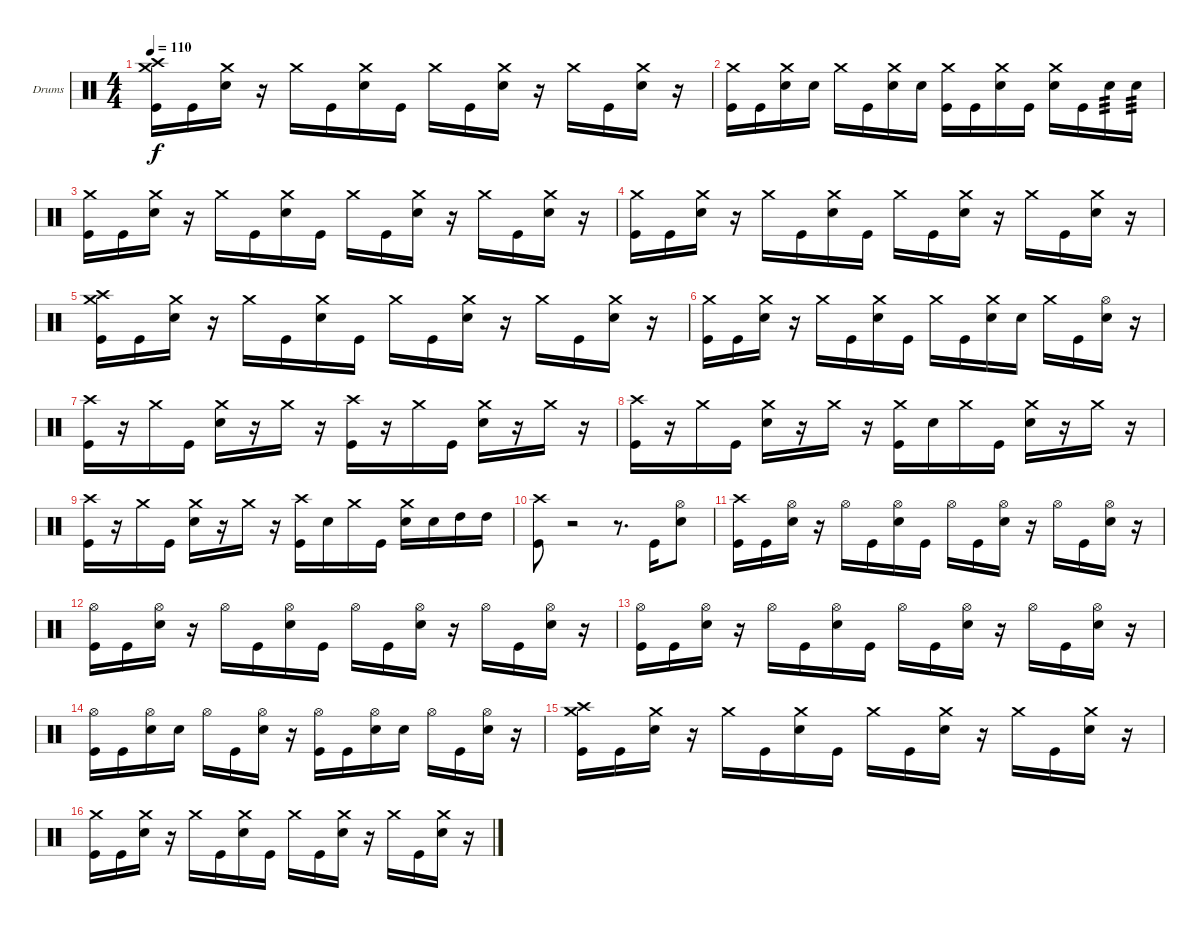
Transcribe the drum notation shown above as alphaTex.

\bracketExtendMode groupsimilarinstruments
\firstSystemTrackNameOrientation horizontal
\otherSystemsTrackNameOrientation horizontal
\track ("Drumkit" "Drums") {instrument percussion}
\staff {score}
\articulation defaults
\ts (4 4)
\tempo 110
\clef neutral
\ks c
("Crash high (hit)" "Crash medium (hit)" "Kick (hit)").16{dy f} "Kick (hit)".16 ("Crash medium (hit)" "Snare (hit) 2").16 r.16 "Crash medium (hit)".16 "Kick (hit)".16 ("Crash medium (hit)" "Snare (hit) 2").16 "Kick (hit)".16 "Crash medium (hit)".16 "Kick (hit)".16 ("Crash medium (hit)" "Snare (hit) 2").16 r.16 "Crash medium (hit)".16 "Kick (hit)".16 ("Crash medium (hit)" "Snare (hit) 2").16 r.16 |
("Crash medium (hit)" "Kick (hit)").16 "Kick (hit)".16 ("Crash medium (hit)" "Snare (hit) 2").16 "Snare (hit) 2".16 "Crash medium (hit)".16 "Kick (hit)".16 ("Crash medium (hit)" "Snare (hit) 2").16 "Snare (hit) 2".16 ("Crash medium (hit)" "Kick (hit)").16 "Kick (hit)".16 ("Crash medium (hit)" "Snare (hit) 2").16 "Kick (hit)".16 ("Crash medium (hit)" "Snare (hit) 2").16 "Kick (hit)".16 "Snare (hit) 2".16{tp 3} "Snare (hit) 2".16{tp 3} |
("Crash medium (hit)" "Kick (hit)").16 "Kick (hit)".16 ("Crash medium (hit)" "Snare (hit) 2").16 r.16 "Crash medium (hit)".16 "Kick (hit)".16 ("Crash medium (hit)" "Snare (hit) 2").16 "Kick (hit)".16 "Crash medium (hit)".16 "Kick (hit)".16 ("Crash medium (hit)" "Snare (hit) 2").16 r.16 "Crash medium (hit)".16 "Kick (hit)".16 ("Crash medium (hit)" "Snare (hit) 2").16 r.16 |
("Crash medium (hit)" "Kick (hit)").16 "Kick (hit)".16 ("Crash medium (hit)" "Snare (hit) 2").16 r.16 "Crash medium (hit)".16 "Kick (hit)".16 ("Crash medium (hit)" "Snare (hit) 2").16 "Kick (hit)".16 "Crash medium (hit)".16 "Kick (hit)".16 ("Crash medium (hit)" "Snare (hit) 2").16 r.16 "Crash medium (hit)".16 "Kick (hit)".16 ("Crash medium (hit)" "Snare (hit) 2").16 r.16 |
("Crash high (hit)" "Crash medium (hit)" "Kick (hit)").16 "Kick (hit)".16 ("Crash medium (hit)" "Snare (hit) 2").16 r.16 "Crash medium (hit)".16 "Kick (hit)".16 ("Crash medium (hit)" "Snare (hit) 2").16 "Kick (hit)".16 "Crash medium (hit)".16 "Kick (hit)".16 ("Crash medium (hit)" "Snare (hit) 2").16 r.16 "Crash medium (hit)".16 "Kick (hit)".16 ("Crash medium (hit)" "Snare (hit) 2").16 r.16 |
("Crash medium (hit)" "Kick (hit)").16 "Kick (hit)".16 ("Crash medium (hit)" "Snare (hit) 2").16 r.16 "Crash medium (hit)".16 "Kick (hit)".16 ("Crash medium (hit)" "Snare (hit) 2").16 "Kick (hit)".16 "Crash medium (hit)".16 "Kick (hit)".16 ("Crash medium (hit)" "Snare (hit) 2").16 "Snare (hit) 2".16 "Crash medium (hit)".16 "Kick (hit)".16 ("Hi-Hat (open)" "Snare (hit) 2").16 r.16 |
("Crash high (hit)" "Kick (hit)").16 r.16 "Crash medium (hit)".16 "Kick (hit)".16 ("Crash medium (hit)" "Snare (hit) 2").16 r.16 "Crash medium (hit)".16 r.16 ("Crash high (hit)" "Kick (hit)").16 r.16 "Crash medium (hit)".16 "Kick (hit)".16 ("Crash medium (hit)" "Snare (hit) 2").16 r.16 "Crash medium (hit)".16 r.16 |
("Crash high (hit)" "Kick (hit)").16 r.16 "Crash medium (hit)".16 "Kick (hit)".16 ("Crash medium (hit)" "Snare (hit) 2").16 r.16 "Crash medium (hit)".16 r.16 ("Crash medium (hit)" "Kick (hit)").16 "Snare (hit) 2".16 "Crash medium (hit)".16 "Kick (hit)".16 ("Crash medium (hit)" "Snare (hit) 2").16 r.16 "Crash medium (hit)".16 r.16 |
("Crash high (hit)" "Kick (hit)").16 r.16 "Crash medium (hit)".16 "Kick (hit)".16 ("Crash medium (hit)" "Snare (hit) 2").16 r.16 "Crash medium (hit)".16 r.16 ("Crash high (hit)" "Kick (hit)").16 "Snare (hit) 2".16 "Crash medium (hit)".16 "Kick (hit)".16 ("Crash medium (hit)" "Snare (hit) 2").16 "Snare (hit) 2".16 "High Tom (hit)".16 "High Tom (hit)".16 |
("Crash high (hit)" "Kick (hit)").8 r.2 r.8{d} "Kick (hit)".16 ("Hi-Hat (open)" "Snare (hit) 2").8 |
("Crash high (hit)" "Kick (hit)").16 "Kick (hit)".16 ("Hi-Hat (open)" "Snare (hit) 2").16 r.16 "Hi-Hat (open)".16 "Kick (hit)".16 ("Hi-Hat (open)" "Snare (hit) 2").16 "Kick (hit)".16 "Hi-Hat (open)".16 "Kick (hit)".16 ("Hi-Hat (open)" "Snare (hit) 2").16 r.16 "Hi-Hat (open)".16 "Kick (hit)".16 ("Hi-Hat (open)" "Snare (hit) 2").16 r.16 |
("Hi-Hat (open)" "Kick (hit)").16 "Kick (hit)".16 ("Hi-Hat (open)" "Snare (hit) 2").16 r.16 "Hi-Hat (open)".16 "Kick (hit)".16 ("Hi-Hat (open)" "Snare (hit) 2").16 "Kick (hit)".16 "Hi-Hat (open)".16 "Kick (hit)".16 ("Hi-Hat (open)" "Snare (hit) 2").16 r.16 "Hi-Hat (open)".16 "Kick (hit)".16 ("Hi-Hat (open)" "Snare (hit) 2").16 r.16 |
("Hi-Hat (open)" "Kick (hit)").16 "Kick (hit)".16 ("Hi-Hat (open)" "Snare (hit) 2").16 r.16 "Hi-Hat (open)".16 "Kick (hit)".16 ("Hi-Hat (open)" "Snare (hit) 2").16 "Kick (hit)".16 "Hi-Hat (open)".16 "Kick (hit)".16 ("Hi-Hat (open)" "Snare (hit) 2").16 r.16 "Hi-Hat (open)".16 "Kick (hit)".16 ("Hi-Hat (open)" "Snare (hit) 2").16 r.16 |
("Hi-Hat (open)" "Kick (hit)").16 "Kick (hit)".16 ("Hi-Hat (open)" "Snare (hit) 2").16 "Snare (hit) 2".16 "Hi-Hat (open)".16 "Kick (hit)".16 ("Hi-Hat (open)" "Snare (hit) 2").16 r.16 ("Hi-Hat (open)" "Kick (hit)").16 "Kick (hit)".16 ("Hi-Hat (open)" "Snare (hit) 2").16 "Snare (hit) 2".16 "Hi-Hat (open)".16 "Kick (hit)".16 ("Hi-Hat (open)" "Snare (hit) 2").16 r.16 |
("Crash high (hit)" "Crash medium (hit)" "Kick (hit)").16 "Kick (hit)".16 ("Crash medium (hit)" "Snare (hit) 2").16 r.16 "Crash medium (hit)".16 "Kick (hit)".16 ("Crash medium (hit)" "Snare (hit) 2").16 "Kick (hit)".16 "Crash medium (hit)".16 "Kick (hit)".16 ("Crash medium (hit)" "Snare (hit) 2").16 r.16 "Crash medium (hit)".16 "Kick (hit)".16 ("Crash medium (hit)" "Snare (hit) 2").16 r.16 |
("Crash medium (hit)" "Kick (hit)").16 "Kick (hit)".16 ("Crash medium (hit)" "Snare (hit) 2").16 r.16 "Crash medium (hit)".16 "Kick (hit)".16 ("Crash medium (hit)" "Snare (hit) 2").16 "Kick (hit)".16 "Crash medium (hit)".16 "Kick (hit)".16 ("Crash medium (hit)" "Snare (hit) 2").16 r.16 "Crash medium (hit)".16 "Kick (hit)".16 ("Crash medium (hit)" "Snare (hit) 2").16 r.16
